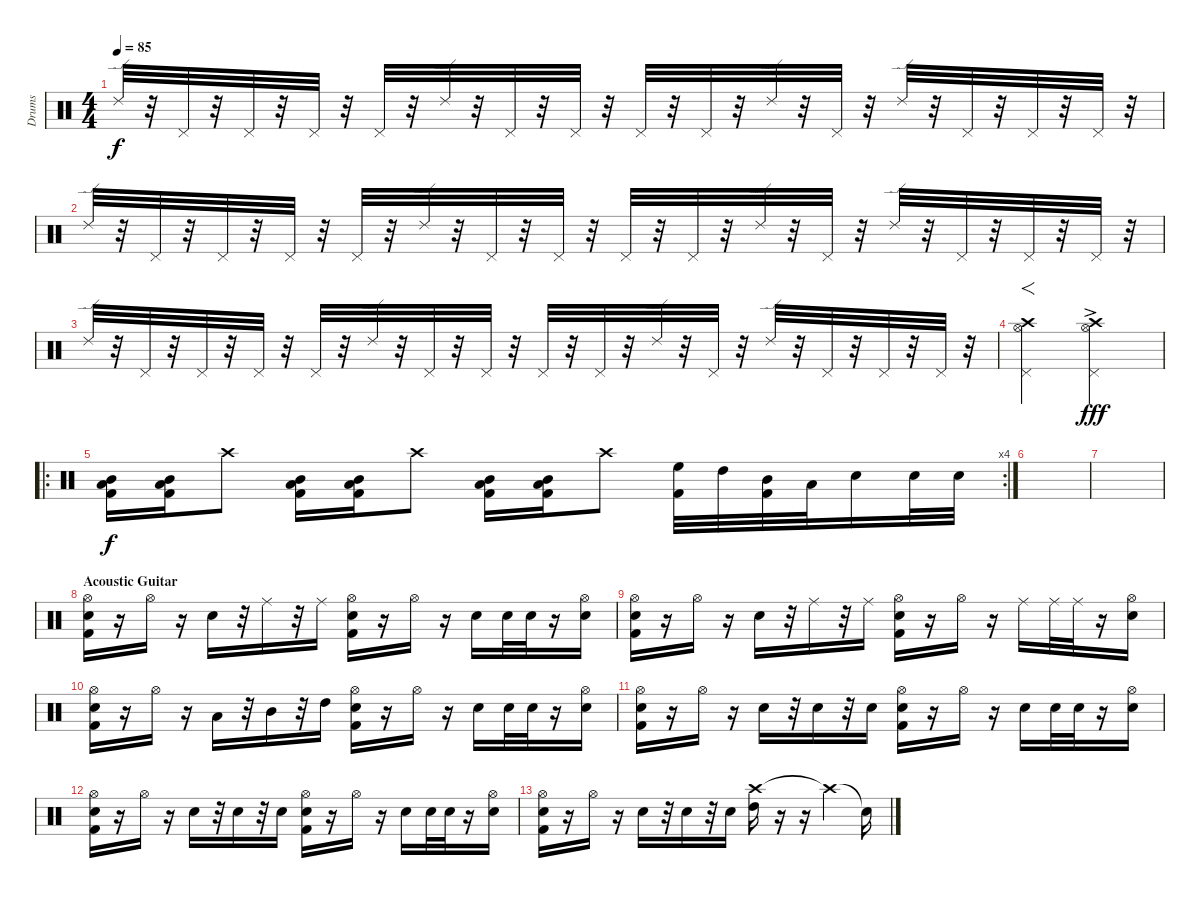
\track ("Drums" "Drums") {instrument percussion}
\staff {score}
\articulation defaults
\ts (4 4)
\tempo 85
\clef neutral
\ks c "Ride (edge) 2".32{dy f}
r.32 "Pedal Hi-Hat (hit)".32 r.32 "Pedal Hi-Hat (hit)".32 r.32 "Pedal Hi-Hat (hit)".32 r.32 "Pedal Hi-Hat (hit)".32 r.32 "Ride (edge) 2".32 r.32 "Pedal Hi-Hat (hit)".32 r.32 "Pedal Hi-Hat (hit)".32 r.32 "Pedal Hi-Hat (hit)".32 r.32 "Pedal Hi-Hat (hit)".32 r.32 "Ride (edge) 2".32 r.32 "Pedal Hi-Hat (hit)".32 r.32 "Ride (edge) 2".32 r.32 "Pedal Hi-Hat (hit)".32 r.32 "Pedal Hi-Hat (hit)".32 r.32 "Pedal Hi-Hat (hit)".32 r.32 |
"Ride (edge) 2".32 r.32 "Pedal Hi-Hat (hit)".32 r.32 "Pedal Hi-Hat (hit)".32 r.32 "Pedal Hi-Hat (hit)".32 r.32 "Pedal Hi-Hat (hit)".32 r.32 "Ride (edge) 2".32 r.32 "Pedal Hi-Hat (hit)".32 r.32 "Pedal Hi-Hat (hit)".32 r.32 "Pedal Hi-Hat (hit)".32 r.32 "Pedal Hi-Hat (hit)".32 r.32 "Ride (edge) 2".32 r.32 "Pedal Hi-Hat (hit)".32 r.32 "Ride (edge) 2".32 r.32 "Pedal Hi-Hat (hit)".32 r.32 "Pedal Hi-Hat (hit)".32 r.32 "Pedal Hi-Hat (hit)".32 r.32 |
"Ride (edge) 2".32 r.32 "Pedal Hi-Hat (hit)".32 r.32 "Pedal Hi-Hat (hit)".32 r.32 "Pedal Hi-Hat (hit)".32 r.32 "Pedal Hi-Hat (hit)".32 r.32 "Ride (edge) 2".32 r.32 "Pedal Hi-Hat (hit)".32 r.32 "Pedal Hi-Hat (hit)".32 r.32 "Pedal Hi-Hat (hit)".32 r.32 "Pedal Hi-Hat (hit)".32 r.32 "Ride (edge) 2".32 r.32 "Pedal Hi-Hat (hit)".32 r.32 "Ride (edge) 2".32 r.32 "Pedal Hi-Hat (hit)".32 r.32 "Pedal Hi-Hat (hit)".32 r.32 "Pedal Hi-Hat (hit)".32 r.32 |
("Crash high (hit)"{tr (49 16)} "Hi-Hat (open)" "Pedal Hi-Hat (hit)").2{f} ("Crash high (hit)"{ac} "Hi-Hat (open)" "Pedal Hi-Hat (hit)").2{dy fff} |
\ro
\rc 4
("Low Tom (hit)" "Mid Tom (hit)" "Kick (hit) 2").16{dy f} ("Low Tom (hit)" "Mid Tom (hit)" "Kick (hit) 2").16 "Crash high (hit)".8 ("Low Tom (hit)" "Mid Tom (hit)" "Kick (hit) 2").16 ("Low Tom (hit)" "Mid Tom (hit)" "Kick (hit) 2").16 "Crash high (hit)".8 ("Low Tom (hit)" "Mid Tom (hit)" "Kick (hit) 2").16 ("Low Tom (hit)" "Mid Tom (hit)" "Kick (hit) 2").16 "Crash high (hit)".8 ("High Floor Tom (hit)" "Kick (hit) 2").32 "High Tom (hit)".32 ("Mid Tom (hit)" "Kick (hit) 2").32 "Low Tom (hit)".32 "Electric Snare (hit)".16 "Snare (hit) 2".32 "Snare (hit) 2".32 |
|
|
\section ("" "Acoustic Guitar")
("Hi-Hat (open)" "Snare (hit) 2" "Kick (hit) 2").16 r.16 "Hi-Hat (open)".16 r.16 "Snare (hit) 2".16 r.32 "Ride (middle)".16 r.32 "Ride (middle)".16 ("Hi-Hat (open)" "Snare (hit) 2" "Kick (hit) 2").16 r.16 "Hi-Hat (open)".16 r.16 "Snare (hit) 2".16 "Snare (hit) 2".32 "Snare (hit) 2".32 r.16 ("Hi-Hat (open)" "Snare (hit) 2").16 |
("Hi-Hat (open)" "Snare (hit) 2" "Kick (hit) 2").16 r.16 "Hi-Hat (open)".16 r.16 "Snare (hit) 2".16 r.32 "Ride (middle)".16 r.32 "Ride (middle)".16 ("Hi-Hat (open)" "Snare (hit) 2" "Kick (hit) 2").16 r.16 "Hi-Hat (open)".16 r.16 "Ride (middle)".16 "Ride (middle)".32 "Ride (middle)".32 r.16 ("Hi-Hat (open)" "Snare (hit) 2").16 |
("Hi-Hat (open)" "Snare (hit) 2" "Kick (hit) 2").16 r.16 "Hi-Hat (open)".16 r.16 "Low Tom (hit)".16 r.32 "Mid Tom (hit)".16 r.32 "High Tom (hit)".16 ("Hi-Hat (open)" "Snare (hit) 2" "Kick (hit) 2").16 r.16 "Hi-Hat (open)".16 r.16 "Snare (hit) 2".16 "Snare (hit) 2".32 "Snare (hit) 2".32 r.16 ("Hi-Hat (open)" "Snare (hit) 2").16 |
("Hi-Hat (open)" "Snare (hit) 2" "Kick (hit) 2").16 r.16 "Hi-Hat (open)".16 r.16 "Snare (hit) 2".16 r.32 "Snare (hit) 2".16 r.32 "Snare (hit) 2".16 ("Hi-Hat (open)" "Snare (hit) 2" "Kick (hit) 2").16 r.16 "Hi-Hat (open)".16 r.16 "Snare (hit) 2".16 "Snare (hit) 2".32 "Snare (hit) 2".32 r.16 ("Hi-Hat (open)" "Snare (hit) 2").16 |
("Hi-Hat (open)" "Snare (hit) 2" "Kick (hit) 2").16 r.16 "Hi-Hat (open)".16 r.16 "Snare (hit) 2".16 r.32 "Snare (hit) 2".16 r.32 "Snare (hit) 2".16 ("Hi-Hat (open)" "Snare (hit) 2" "Kick (hit) 2").16 r.16 "Hi-Hat (open)".16 r.16 "Snare (hit) 2".16 "Snare (hit) 2".32 "Snare (hit) 2".32 r.16 ("Hi-Hat (open)" "Snare (hit) 2").16 |
("Hi-Hat (open)" "Snare (hit) 2" "Kick (hit) 2").16 r.16 "Hi-Hat (open)".16 r.16 "Snare (hit) 2".16 r.32 "Snare (hit) 2".16 r.32 "Snare (hit) 2".16 ("Crash high (hit)" "High Tom (hit)").16 r.16 r.16 "Crash high (hit)"{t}.4 "Snare (hit)"{t}.16
